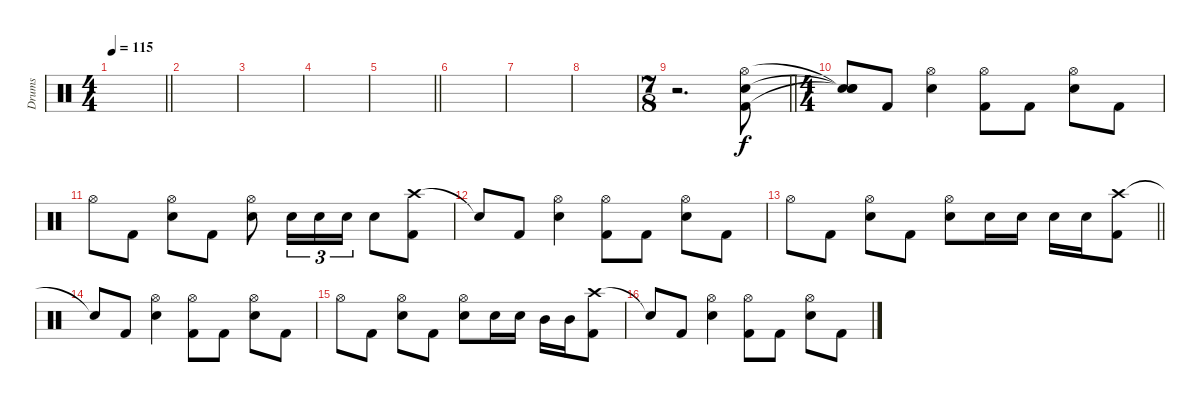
\track ("Drums" "Drums") {instrument percussion}
\staff {score}
\articulation defaults
\ts (4 4)
\tempo 115
\clef neutral
\barLineRight lightlight
\ks c
|
\section ("" "")
|
|
|
\barLineRight lightlight
|
\section ("" "")
|
|
|
\ts (7 8)
\barLineRight lightlight
r.2{d} ("Hi-Hat (open)" "Electric Snare (hit)" "Kick (hit) 2").8 |
\ts (4 4)
\section ("" "")
("Snare (hit)"{t} "Snare (hit)"{t} "Snare (hit)"{t}).8 "Kick (hit) 2".8 ("Hi-Hat (open)" "Electric Snare (hit)").4 ("Hi-Hat (open)" "Kick (hit) 2").8 "Kick (hit) 2".8 ("Hi-Hat (open)" "Electric Snare (hit)").8 "Kick (hit) 2".8 |
"Hi-Hat (open)".8 "Kick (hit) 2".8 ("Hi-Hat (open)" "Electric Snare (hit)").8 "Kick (hit) 2".8 ("Hi-Hat (open)" "Electric Snare (hit)").8 "Electric Snare (hit)".16{tu (3 2)} "Electric Snare (hit)".16{tu (3 2)} "Electric Snare (hit)".16{tu (3 2)} "Electric Snare (hit)".8 ("Crash high (hit)" "Kick (hit) 2").8 |
"Snare (hit)"{t}.8 "Kick (hit) 2".8 ("Hi-Hat (open)" "Electric Snare (hit)").4 ("Hi-Hat (open)" "Kick (hit) 2").8 "Kick (hit) 2".8 ("Hi-Hat (open)" "Electric Snare (hit)").8 "Kick (hit) 2".8 |
\barLineRight lightlight "Hi-Hat (open)".8 "Kick (hit) 2".8
("Hi-Hat (open)" "Electric Snare (hit)").8 "Kick (hit) 2".8 ("Hi-Hat (open)" "Electric Snare (hit)").8 "Electric Snare (hit)".16 "Electric Snare (hit)".16 "Electric Snare (hit)".16 "Electric Snare (hit)".16 ("Crash high (hit)" "Kick (hit) 2").8 |
\section ("" "")
"Snare (hit)"{t}.8 "Kick (hit) 2".8 ("Hi-Hat (open)" "Electric Snare (hit)").4 ("Hi-Hat (open)" "Kick (hit) 2").8 "Kick (hit) 2".8 ("Hi-Hat (open)" "Electric Snare (hit)").8 "Kick (hit) 2".8 |
"Hi-Hat (open)".8 "Kick (hit) 2".8 ("Hi-Hat (open)" "Electric Snare (hit)").8 "Kick (hit) 2".8 ("Hi-Hat (open)" "Electric Snare (hit)").8 "Electric Snare (hit)".16 "Electric Snare (hit)".16 "Mid Tom (hit)".16 "Mid Tom (hit)".16 ("Crash high (hit)" "Kick (hit) 2").8 |
"Snare (hit)"{t}.8 "Kick (hit) 2".8 ("Hi-Hat (open)" "Electric Snare (hit)").4 ("Hi-Hat (open)" "Kick (hit) 2").8 "Kick (hit) 2".8 ("Hi-Hat (open)" "Electric Snare (hit)").8 "Kick (hit) 2".8
